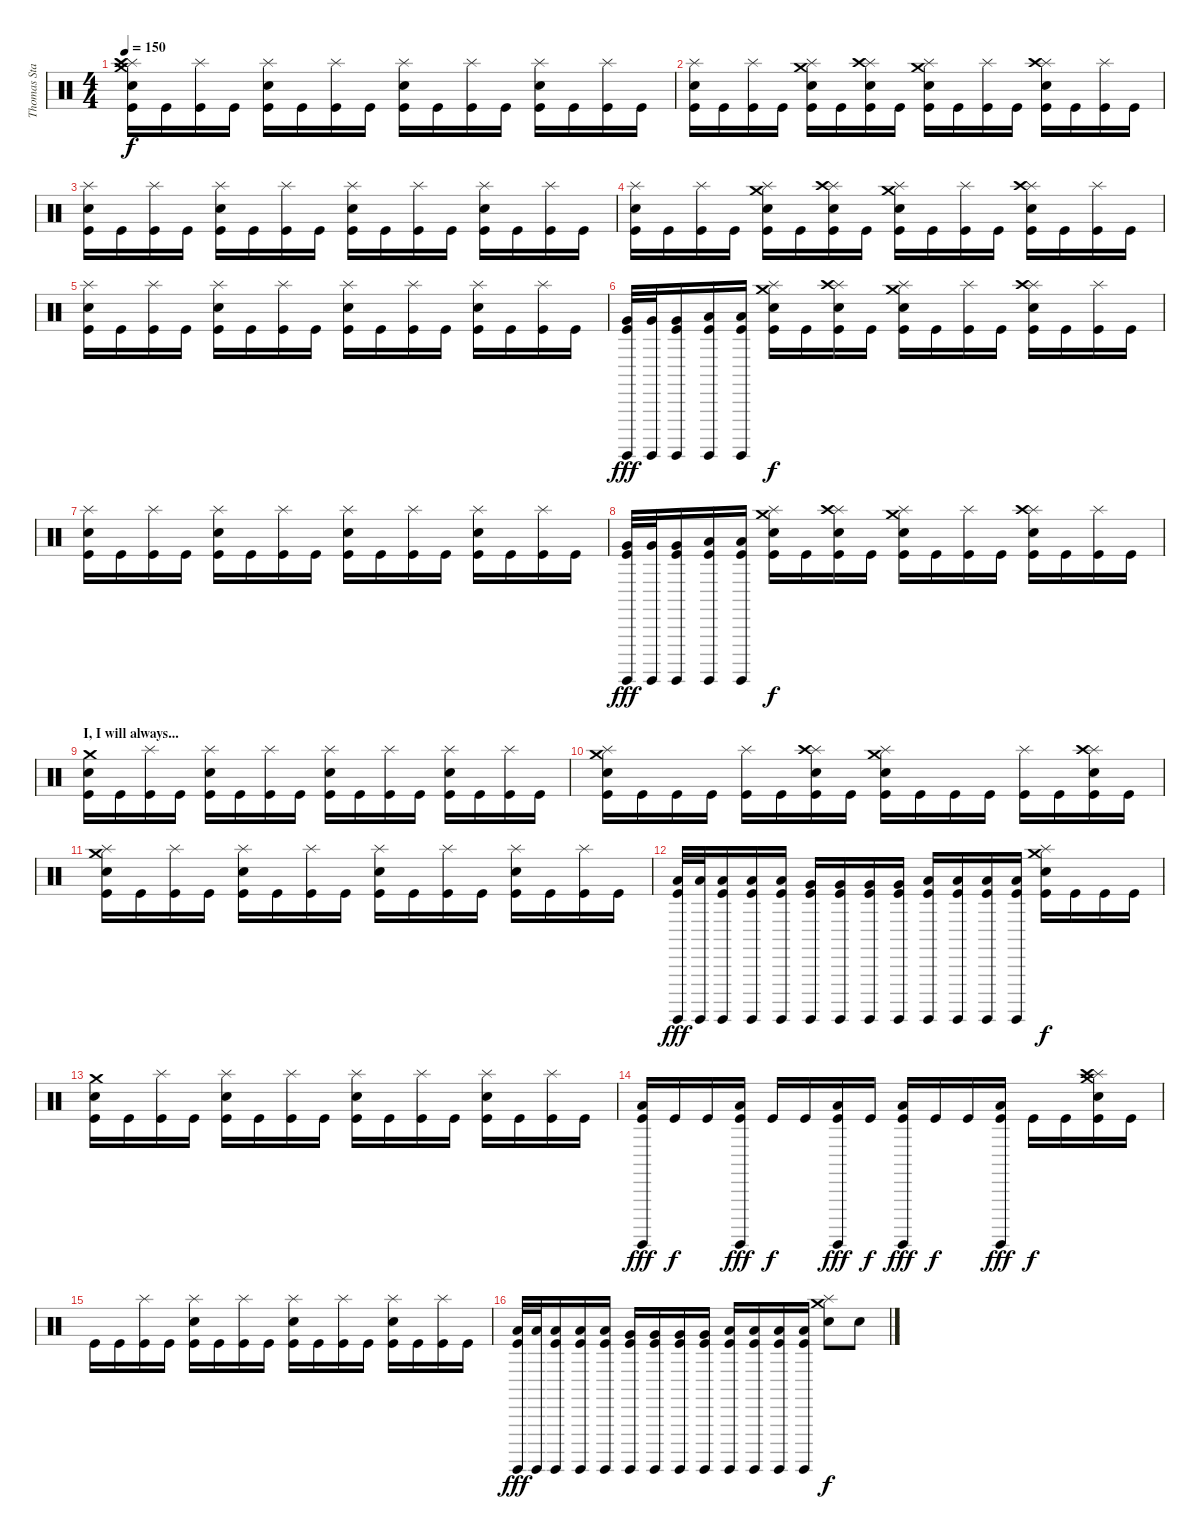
\track ("Thomas Stauch" "Thomas Sta") {instrument percussion}
\staff {score}
\articulation defaults
\ts (4 4)
\tempo 150
\clef neutral
\ks c
("Crash medium (hit)" "Splash (hit)" "Crash high (hit)" "Electric Snare (hit)" "Kick (hit)").16{dy f} "Kick (hit)".16 ("Splash (hit)" "Kick (hit)").16 "Kick (hit)".16 ("Splash (hit)" "Electric Snare (hit)" "Kick (hit)").16 "Kick (hit)".16 ("Splash (hit)" "Kick (hit)").16 "Kick (hit)".16 ("Splash (hit)" "Electric Snare (hit)" "Kick (hit)").16 "Kick (hit)".16 ("Splash (hit)" "Kick (hit)").16 "Kick (hit)".16 ("Splash (hit)" "Electric Snare (hit)" "Kick (hit)").16 "Kick (hit)".16 ("Splash (hit)" "Kick (hit)").16 "Kick (hit)".16 |
("Splash (hit)" "Electric Snare (hit)" "Kick (hit)").16 "Kick (hit)".16 ("Splash (hit)" "Kick (hit)").16 "Kick (hit)".16 ("Crash medium (hit)" "Splash (hit)" "Electric Snare (hit)" "Kick (hit)").16 "Kick (hit)".16 ("Splash (hit)" "Crash high (hit)" "Electric Snare (hit)" "Kick (hit)").16 "Kick (hit)".16 ("Crash medium (hit)" "Splash (hit)" "Electric Snare (hit)" "Kick (hit)").16 "Kick (hit)".16 ("Splash (hit)" "Kick (hit)").16 "Kick (hit)".16 ("Splash (hit)" "Crash high (hit)" "Electric Snare (hit)" "Kick (hit)").16 "Kick (hit)".16 ("Splash (hit)" "Kick (hit)").16 "Kick (hit)".16 |
("Splash (hit)" "Electric Snare (hit)" "Kick (hit)").16 "Kick (hit)".16 ("Splash (hit)" "Kick (hit)").16 "Kick (hit)".16 ("Splash (hit)" "Electric Snare (hit)" "Kick (hit)").16 "Kick (hit)".16 ("Splash (hit)" "Kick (hit)").16 "Kick (hit)".16 ("Splash (hit)" "Electric Snare (hit)" "Kick (hit)").16 "Kick (hit)".16 ("Splash (hit)" "Kick (hit)").16 "Kick (hit)".16 ("Splash (hit)" "Electric Snare (hit)" "Kick (hit)").16 "Kick (hit)".16 ("Splash (hit)" "Kick (hit)").16 "Kick (hit)".16 |
("Splash (hit)" "Electric Snare (hit)" "Kick (hit)").16 "Kick (hit)".16 ("Splash (hit)" "Kick (hit)").16 "Kick (hit)".16 ("Crash medium (hit)" "Splash (hit)" "Electric Snare (hit)" "Kick (hit)").16 "Kick (hit)".16 ("Splash (hit)" "Crash high (hit)" "Electric Snare (hit)" "Kick (hit)").16 "Kick (hit)".16 ("Crash medium (hit)" "Splash (hit)" "Electric Snare (hit)" "Kick (hit)").16 "Kick (hit)".16 ("Splash (hit)" "Kick (hit)").16 "Kick (hit)".16 ("Splash (hit)" "Crash high (hit)" "Electric Snare (hit)" "Kick (hit)").16 "Kick (hit)".16 ("Splash (hit)" "Kick (hit)").16 "Kick (hit)".16 |
("Splash (hit)" "Electric Snare (hit)" "Kick (hit)").16 "Kick (hit)".16 ("Splash (hit)" "Kick (hit)").16 "Kick (hit)".16 ("Splash (hit)" "Electric Snare (hit)" "Kick (hit)").16 "Kick (hit)".16 ("Splash (hit)" "Kick (hit)").16 "Kick (hit)".16 ("Splash (hit)" "Electric Snare (hit)" "Kick (hit)").16 "Kick (hit)".16 ("Splash (hit)" "Kick (hit)").16 "Kick (hit)".16 ("Splash (hit)" "Electric Snare (hit)" "Kick (hit)").16 "Kick (hit)".16 ("Splash (hit)" "Kick (hit)").16 "Kick (hit)".16 |
("Surdo (hit)" "Very Low Tom (hit)" "Kick (hit)").32{dy fff} ("Surdo (hit)" "Very Low Tom (hit)").32 ("Surdo (hit)" "Very Low Tom (hit)" "Kick (hit)").16 ("Surdo (hit)" "Low Floor Tom (hit)" "Kick (hit)").16 ("Surdo (hit)" "Low Floor Tom (hit)" "Kick (hit)").16 ("Crash medium (hit)" "Splash (hit)" "Electric Snare (hit)" "Kick (hit)").16{dy f} "Kick (hit)".16 ("Splash (hit)" "Crash high (hit)" "Electric Snare (hit)" "Kick (hit)").16 "Kick (hit)".16 ("Crash medium (hit)" "Splash (hit)" "Electric Snare (hit)" "Kick (hit)").16 "Kick (hit)".16 ("Splash (hit)" "Kick (hit)").16 "Kick (hit)".16 ("Splash (hit)" "Crash high (hit)" "Electric Snare (hit)" "Kick (hit)").16 "Kick (hit)".16 ("Splash (hit)" "Kick (hit)").16 "Kick (hit)".16 |
("Splash (hit)" "Electric Snare (hit)" "Kick (hit)").16 "Kick (hit)".16 ("Splash (hit)" "Kick (hit)").16 "Kick (hit)".16 ("Splash (hit)" "Electric Snare (hit)" "Kick (hit)").16 "Kick (hit)".16 ("Splash (hit)" "Kick (hit)").16 "Kick (hit)".16 ("Splash (hit)" "Electric Snare (hit)" "Kick (hit)").16 "Kick (hit)".16 ("Splash (hit)" "Kick (hit)").16 "Kick (hit)".16 ("Splash (hit)" "Electric Snare (hit)" "Kick (hit)").16 "Kick (hit)".16 ("Splash (hit)" "Kick (hit)").16 "Kick (hit)".16 |
("Surdo (hit)" "Very Low Tom (hit)" "Kick (hit)").32{dy fff} ("Surdo (hit)" "Very Low Tom (hit)").32 ("Surdo (hit)" "Very Low Tom (hit)" "Kick (hit)").16 ("Surdo (hit)" "Low Floor Tom (hit)" "Kick (hit)").16 ("Surdo (hit)" "Low Floor Tom (hit)" "Kick (hit)").16 ("Crash medium (hit)" "Splash (hit)" "Electric Snare (hit)" "Kick (hit)").16{dy f} "Kick (hit)".16 ("Splash (hit)" "Crash high (hit)" "Electric Snare (hit)" "Kick (hit)").16 "Kick (hit)".16 ("Crash medium (hit)" "Splash (hit)" "Electric Snare (hit)" "Kick (hit)").16 "Kick (hit)".16 ("Splash (hit)" "Kick (hit)").16 "Kick (hit)".16 ("Splash (hit)" "Crash high (hit)" "Electric Snare (hit)" "Kick (hit)").16 "Kick (hit)".16 ("Splash (hit)" "Kick (hit)").16 "Kick (hit)".16 |
\section ("" "I, I will always...")
("Crash medium (hit)" "Electric Snare (hit)" "Kick (hit)").16 "Kick (hit)".16 ("Splash (hit)" "Kick (hit)").16 "Kick (hit)".16 ("Splash (hit)" "Electric Snare (hit)" "Kick (hit)").16 "Kick (hit)".16 ("Splash (hit)" "Kick (hit)").16 "Kick (hit)".16 ("Splash (hit)" "Electric Snare (hit)" "Kick (hit)").16 "Kick (hit)".16 ("Splash (hit)" "Kick (hit)").16 "Kick (hit)".16 ("Splash (hit)" "Electric Snare (hit)" "Kick (hit)").16 "Kick (hit)".16 ("Splash (hit)" "Kick (hit)").16 "Kick (hit)".16 |
("Crash medium (hit)" "Splash (hit)" "Electric Snare (hit)" "Kick (hit)").16 "Kick (hit)".16 "Kick (hit)".16 "Kick (hit)".16 ("Splash (hit)" "Kick (hit)").16 "Kick (hit)".16 ("Splash (hit)" "Crash high (hit)" "Electric Snare (hit)" "Kick (hit)").16 "Kick (hit)".16 ("Crash medium (hit)" "Splash (hit)" "Electric Snare (hit)" "Kick (hit)").16 "Kick (hit)".16 "Kick (hit)".16 "Kick (hit)".16 ("Splash (hit)" "Kick (hit)").16 "Kick (hit)".16 ("Splash (hit)" "Crash high (hit)" "Electric Snare (hit)" "Kick (hit)").16 "Kick (hit)".16 |
("Crash medium (hit)" "Splash (hit)" "Electric Snare (hit)" "Kick (hit)").16 "Kick (hit)".16 ("Splash (hit)" "Kick (hit)").16 "Kick (hit)".16 ("Splash (hit)" "Electric Snare (hit)" "Kick (hit)").16 "Kick (hit)".16 ("Splash (hit)" "Kick (hit)").16 "Kick (hit)".16 ("Splash (hit)" "Electric Snare (hit)" "Kick (hit)").16 "Kick (hit)".16 ("Splash (hit)" "Kick (hit)").16 "Kick (hit)".16 ("Splash (hit)" "Electric Snare (hit)" "Kick (hit)").16 "Kick (hit)".16 ("Splash (hit)" "Kick (hit)").16 "Kick (hit)".16 |
("Surdo (hit)" "Low Tom (hit)" "Kick (hit)").32{dy fff} ("Surdo (hit)" "Low Tom (hit)").32 ("Surdo (hit)" "Low Tom (hit)" "Kick (hit)").16 ("Surdo (hit)" "Low Tom (hit)" "Kick (hit)").16 ("Surdo (hit)" "Low Tom (hit)" "Kick (hit)").16 ("Surdo (hit)" "Very Low Tom (hit)" "Kick (hit)").16 ("Surdo (hit)" "Very Low Tom (hit)" "Kick (hit)").16 ("Surdo (hit)" "Very Low Tom (hit)" "Kick (hit)").16 ("Surdo (hit)" "Very Low Tom (hit)" "Kick (hit)").16 ("Surdo (hit)" "Low Floor Tom (hit)" "Kick (hit)").16 ("Surdo (hit)" "Low Floor Tom (hit)" "Kick (hit)").16 ("Surdo (hit)" "Low Floor Tom (hit)" "Kick (hit)").16 ("Surdo (hit)" "Low Floor Tom (hit)" "Kick (hit)").16 ("Crash medium (hit)" "Splash (hit)" "Electric Snare (hit)" "Kick (hit)").16{dy f} "Kick (hit)".16 "Kick (hit)".16 "Kick (hit)".16 |
("Crash medium (hit)" "Electric Snare (hit)" "Kick (hit)").16 "Kick (hit)".16 ("Splash (hit)" "Kick (hit)").16 "Kick (hit)".16 ("Splash (hit)" "Electric Snare (hit)" "Kick (hit)").16 "Kick (hit)".16 ("Splash (hit)" "Kick (hit)").16 "Kick (hit)".16 ("Splash (hit)" "Electric Snare (hit)" "Kick (hit)").16 "Kick (hit)".16 ("Splash (hit)" "Kick (hit)").16 "Kick (hit)".16 ("Splash (hit)" "Electric Snare (hit)" "Kick (hit)").16 "Kick (hit)".16 ("Splash (hit)" "Kick (hit)").16 "Kick (hit)".16 |
("Surdo (hit)" "Low Floor Tom (hit)" "Kick (hit)").16{dy fff} "Kick (hit)".16{dy f} "Kick (hit)".16 ("Surdo (hit)" "Low Floor Tom (hit)" "Kick (hit)").16{dy fff} "Kick (hit)".16{dy f} "Kick (hit)".16 ("Surdo (hit)" "Low Floor Tom (hit)" "Kick (hit)").16{dy fff} "Kick (hit)".16{dy f} ("Surdo (hit)" "Low Floor Tom (hit)" "Kick (hit)").16{dy fff} "Kick (hit)".16{dy f} "Kick (hit)".16 ("Surdo (hit)" "Low Floor Tom (hit)" "Kick (hit)").16{dy fff} "Kick (hit)".16{dy f} "Kick (hit)".16 ("Crash medium (hit)" "Splash (hit)" "Crash high (hit)" "Electric Snare (hit)" "Kick (hit)").16 "Kick (hit)".16 |
"Kick (hit)".16 "Kick (hit)".16 ("Splash (hit)" "Kick (hit)").16 "Kick (hit)".16 ("Splash (hit)" "Electric Snare (hit)" "Kick (hit)").16 "Kick (hit)".16 ("Splash (hit)" "Kick (hit)").16 "Kick (hit)".16 ("Splash (hit)" "Electric Snare (hit)" "Kick (hit)").16 "Kick (hit)".16 ("Splash (hit)" "Kick (hit)").16 "Kick (hit)".16 ("Splash (hit)" "Electric Snare (hit)" "Kick (hit)").16 "Kick (hit)".16 ("Splash (hit)" "Kick (hit)").16 "Kick (hit)".16 |
("Surdo (hit)" "Low Tom (hit)" "Kick (hit)").32{dy fff} ("Surdo (hit)" "Low Tom (hit)").32 ("Surdo (hit)" "Low Tom (hit)" "Kick (hit)").16 ("Surdo (hit)" "Low Tom (hit)" "Kick (hit)").16 ("Surdo (hit)" "Low Tom (hit)" "Kick (hit)").16 ("Surdo (hit)" "Very Low Tom (hit)" "Kick (hit)").16 ("Surdo (hit)" "Very Low Tom (hit)" "Kick (hit)").16 ("Surdo (hit)" "Very Low Tom (hit)" "Kick (hit)").16 ("Surdo (hit)" "Very Low Tom (hit)" "Kick (hit)").16 ("Surdo (hit)" "Low Floor Tom (hit)" "Kick (hit)").16 ("Surdo (hit)" "Low Floor Tom (hit)" "Kick (hit)").16 ("Surdo (hit)" "Low Floor Tom (hit)" "Kick (hit)").16 ("Surdo (hit)" "Low Floor Tom (hit)" "Kick (hit)").16 ("Crash medium (hit)" "Splash (hit)" "Electric Snare (hit)").8{dy f} "Electric Snare (hit)".8
